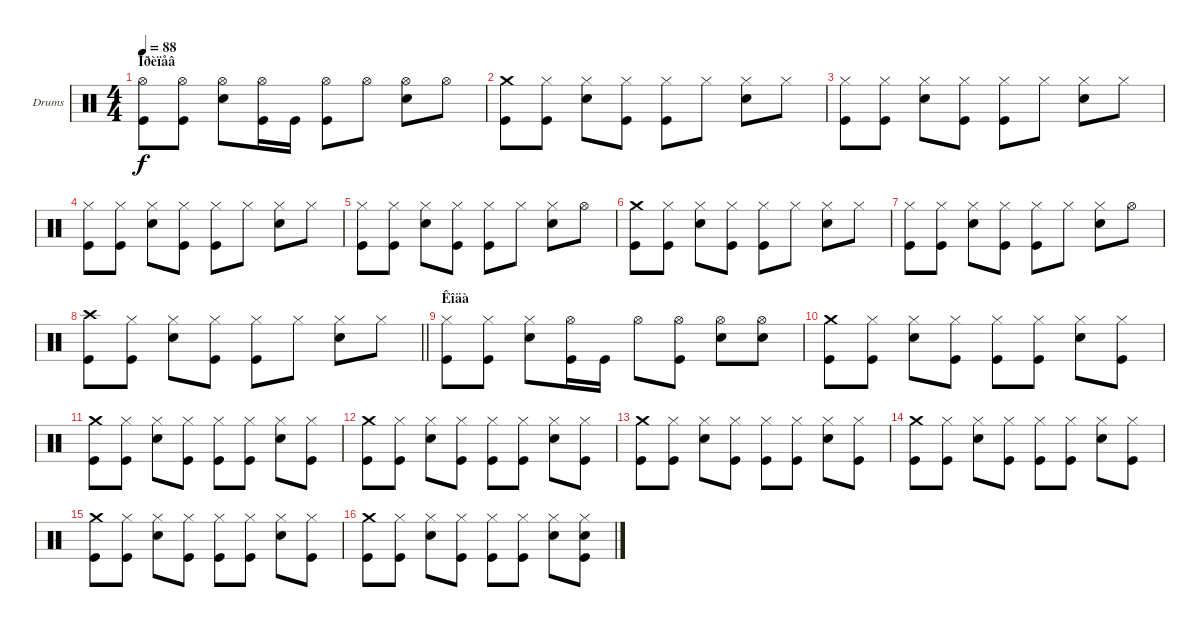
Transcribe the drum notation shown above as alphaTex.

\bracketExtendMode groupsimilarinstruments
\firstSystemTrackNameOrientation horizontal
\otherSystemsTrackNameOrientation horizontal
\track ("Drumkit" "Drums") {instrument percussion}
\staff {score}
\articulation defaults
\ts (4 4)
\section ("" "Ïðèïåâ")
\tempo 88
\clef neutral
\ks c
("Kick (hit)" "Hi-Hat (open)").8{dy f} ("Kick (hit)" "Hi-Hat (open)").8 ("Snare (hit) 2" "Hi-Hat (open)").8 ("Kick (hit)" "Hi-Hat (open)").16 "Kick (hit)".16 ("Kick (hit)" "Hi-Hat (open)").8 "Hi-Hat (open)".8 ("Snare (hit) 2" "Hi-Hat (open)").8 "Hi-Hat (open)".8 |
("Kick (hit)" "Crash medium (hit)").8 ("Kick (hit)" "Hi-Hat (closed)").8 ("Snare (hit) 2" "Hi-Hat (closed)").8 ("Kick (hit)" "Hi-Hat (closed)").8 ("Kick (hit)" "Hi-Hat (closed)").8 "Hi-Hat (closed)".8 ("Snare (hit) 2" "Hi-Hat (closed)").8 "Hi-Hat (closed)".8 |
("Kick (hit)" "Hi-Hat (closed)").8 ("Kick (hit)" "Hi-Hat (closed)").8 ("Snare (hit) 2" "Hi-Hat (closed)").8 ("Kick (hit)" "Hi-Hat (closed)").8 ("Kick (hit)" "Hi-Hat (closed)").8 "Hi-Hat (closed)".8 ("Snare (hit) 2" "Hi-Hat (closed)").8 "Hi-Hat (closed)".8 |
("Kick (hit)" "Hi-Hat (closed)").8 ("Kick (hit)" "Hi-Hat (closed)").8 ("Snare (hit) 2" "Hi-Hat (closed)").8 ("Kick (hit)" "Hi-Hat (closed)").8 ("Kick (hit)" "Hi-Hat (closed)").8 "Hi-Hat (closed)".8 ("Snare (hit) 2" "Hi-Hat (closed)").8 "Hi-Hat (closed)".8 |
("Kick (hit)" "Hi-Hat (closed)").8 ("Kick (hit)" "Hi-Hat (closed)").8 ("Snare (hit) 2" "Hi-Hat (closed)").8 ("Kick (hit)" "Hi-Hat (closed)").8 ("Kick (hit)" "Hi-Hat (closed)").8 "Hi-Hat (closed)".8 ("Snare (hit) 2" "Hi-Hat (closed)").8 "Hi-Hat (open)".8 |
("Kick (hit)" "Crash medium (hit)").8 ("Kick (hit)" "Hi-Hat (closed)").8 ("Snare (hit) 2" "Hi-Hat (closed)").8 ("Kick (hit)" "Hi-Hat (closed)").8 ("Kick (hit)" "Hi-Hat (closed)").8 "Hi-Hat (closed)".8 ("Snare (hit) 2" "Hi-Hat (closed)").8 "Hi-Hat (closed)".8 |
("Kick (hit)" "Hi-Hat (closed)").8 ("Kick (hit)" "Hi-Hat (closed)").8 ("Snare (hit) 2" "Hi-Hat (closed)").8 ("Kick (hit)" "Hi-Hat (closed)").8 ("Kick (hit)" "Hi-Hat (closed)").8 "Hi-Hat (closed)".8 ("Snare (hit) 2" "Hi-Hat (closed)").8 "Hi-Hat (open)".8 |
\barLineRight lightlight
("Kick (hit)" "Crash high (hit)").8 ("Kick (hit)" "Hi-Hat (closed)").8 ("Snare (hit) 2" "Hi-Hat (closed)").8 ("Kick (hit)" "Hi-Hat (closed)").8 ("Kick (hit)" "Hi-Hat (closed)").8 "Hi-Hat (closed)".8 ("Snare (hit) 2" "Hi-Hat (closed)").8 "Hi-Hat (closed)".8 |
\section ("" "Êîäà")
("Kick (hit)" "Hi-Hat (closed)").8 ("Kick (hit)" "Hi-Hat (closed)").8 ("Snare (hit) 2" "Hi-Hat (closed)").8 ("Kick (hit)" "Hi-Hat (open)").16 "Kick (hit)".16 "Hi-Hat (open)".8 ("Kick (hit)" "Hi-Hat (open)").8 ("Snare (hit) 2" "Hi-Hat (open)").8 ("Snare (hit) 2" "Hi-Hat (open)").8 |
("Kick (hit)" "Crash medium (hit)").8 ("Kick (hit)" "Hi-Hat (closed)").8 ("Snare (hit) 2" "Hi-Hat (closed)").8 ("Kick (hit)" "Hi-Hat (closed)").8 ("Kick (hit)" "Hi-Hat (closed)").8 ("Kick (hit)" "Hi-Hat (closed)").8 ("Snare (hit) 2" "Hi-Hat (closed)").8 ("Kick (hit)" "Hi-Hat (closed)").8 |
("Kick (hit)" "Crash medium (hit)").8 ("Kick (hit)" "Hi-Hat (closed)").8 ("Snare (hit) 2" "Hi-Hat (closed)").8 ("Kick (hit)" "Hi-Hat (closed)").8 ("Kick (hit)" "Hi-Hat (closed)").8 ("Kick (hit)" "Hi-Hat (closed)").8 ("Snare (hit) 2" "Hi-Hat (closed)").8 ("Kick (hit)" "Hi-Hat (closed)").8 |
("Kick (hit)" "Crash medium (hit)").8 ("Kick (hit)" "Hi-Hat (closed)").8 ("Snare (hit) 2" "Hi-Hat (closed)").8 ("Kick (hit)" "Hi-Hat (closed)").8 ("Kick (hit)" "Hi-Hat (closed)").8 ("Kick (hit)" "Hi-Hat (closed)").8 ("Snare (hit) 2" "Hi-Hat (closed)").8 ("Kick (hit)" "Hi-Hat (closed)").8 |
("Kick (hit)" "Crash medium (hit)").8 ("Kick (hit)" "Hi-Hat (closed)").8 ("Snare (hit) 2" "Hi-Hat (closed)").8 ("Kick (hit)" "Hi-Hat (closed)").8 ("Kick (hit)" "Hi-Hat (closed)").8 ("Kick (hit)" "Hi-Hat (closed)").8 ("Snare (hit) 2" "Hi-Hat (closed)").8 ("Kick (hit)" "Hi-Hat (closed)").8 |
("Kick (hit)" "Crash medium (hit)").8 ("Kick (hit)" "Hi-Hat (closed)").8 ("Snare (hit) 2" "Hi-Hat (closed)").8 ("Kick (hit)" "Hi-Hat (closed)").8 ("Kick (hit)" "Hi-Hat (closed)").8 ("Kick (hit)" "Hi-Hat (closed)").8 ("Snare (hit) 2" "Hi-Hat (closed)").8 ("Kick (hit)" "Hi-Hat (closed)").8 |
("Kick (hit)" "Crash medium (hit)").8 ("Kick (hit)" "Hi-Hat (closed)").8 ("Snare (hit) 2" "Hi-Hat (closed)").8 ("Kick (hit)" "Hi-Hat (closed)").8 ("Kick (hit)" "Hi-Hat (closed)").8 ("Kick (hit)" "Hi-Hat (closed)").8 ("Snare (hit) 2" "Hi-Hat (closed)").8 ("Kick (hit)" "Hi-Hat (closed)").8 |
("Kick (hit)" "Crash medium (hit)").8 ("Kick (hit)" "Hi-Hat (closed)").8 ("Snare (hit) 2" "Hi-Hat (closed)").8 ("Kick (hit)" "Hi-Hat (closed)").8 ("Kick (hit)" "Hi-Hat (closed)").8 ("Kick (hit)" "Hi-Hat (closed)").8 ("Snare (hit) 2" "Hi-Hat (closed)").8 ("Snare (hit) 2" "Kick (hit)" "Hi-Hat (closed)").8
